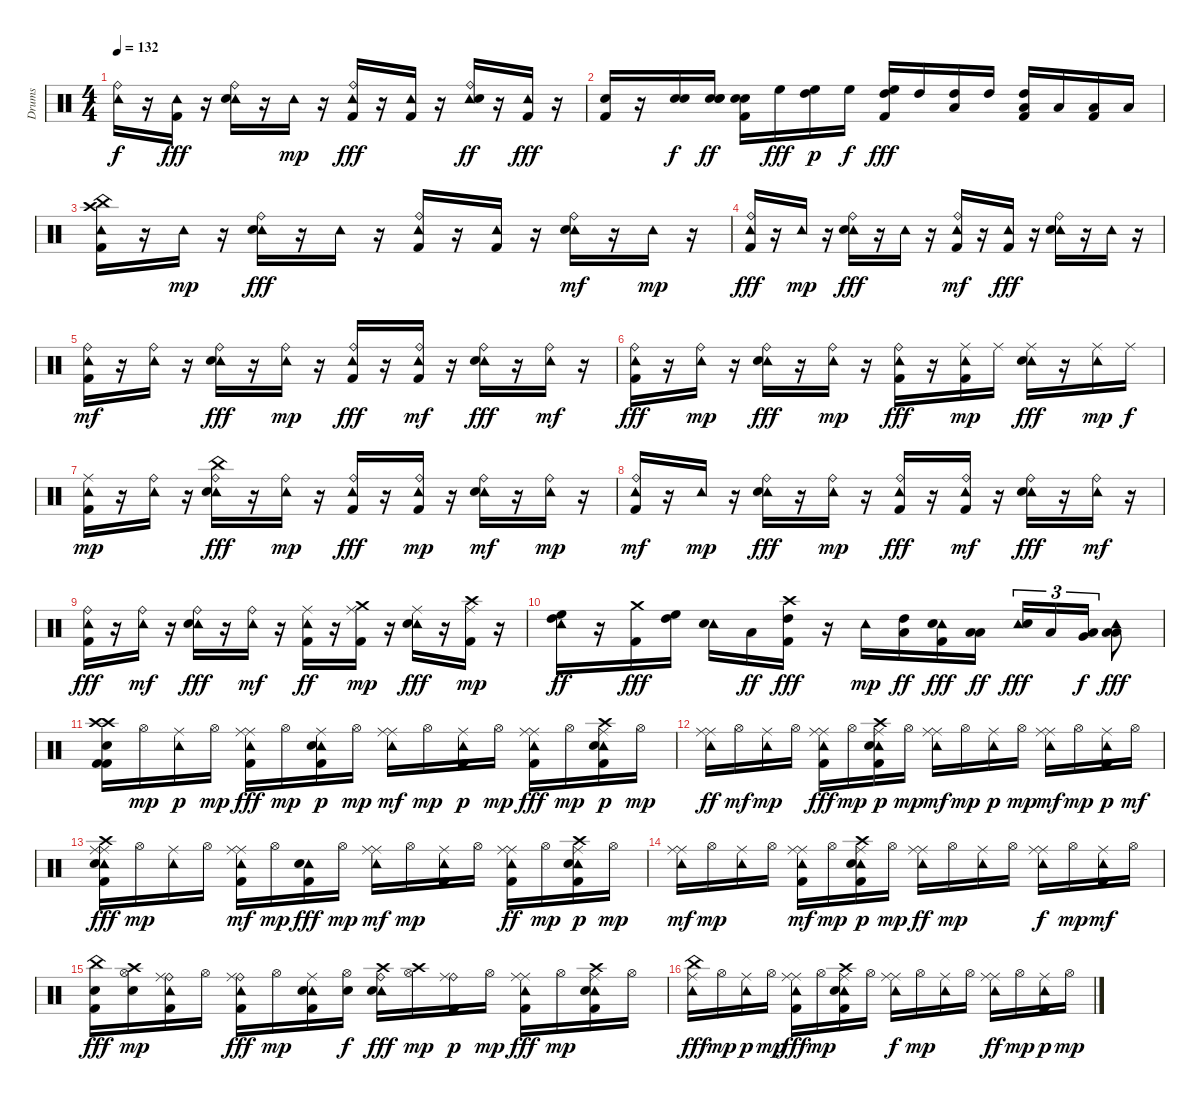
\track ("Drums" "Drums") {instrument percussion}
\staff {score}
\articulation defaults
\ts (4 4)
\tempo 132
\clef neutral
\ks c
("Tambourine (hit)" "Ride (bell)").16{dy f} r.16 ("Tambourine (hit)" "Kick (hit) 2").16{dy fff} r.16 ("Tambourine (hit)" "Snare (hit) 2" "Ride (bell)").16 r.16 "Tambourine (hit)".16{dy mp} r.16 ("Tambourine (hit)" "Kick (hit) 2" "Ride (bell)").16{dy fff} r.16 ("Tambourine (hit)" "Kick (hit) 2").16 r.16 ("Tambourine (hit)" "Snare (hit) 2" "Ride (bell)").16{dy ff} r.16 ("Tambourine (hit)" "Kick (hit) 2").16{dy fff} r.16 |
("Snare (hit) 2" "Kick (hit) 2").16 r.16 ("Snare (hit) 2" "Snare (hit) 2").16{dy f} ("Snare (hit) 2" "Snare (hit) 2" "Snare (hit) 2").16{dy ff} ("Snare (hit) 2" "Kick (hit) 2" "Snare (hit) 2").16 "High Floor Tom (hit)".16{dy fff} ("High Tom (hit)" "High Floor Tom (hit)").16{dy p} "High Floor Tom (hit)".16{dy f} ("High Tom (hit)" "Kick (hit) 2" "High Floor Tom (hit)").16{dy fff} "High Tom (hit)".16 ("High Tom (hit)" "Low Tom (hit)").16 "High Tom (hit)".16 ("High Tom (hit)" "Low Tom (hit)" "Kick (hit) 2").16 "Low Tom (hit)".16 ("Low Floor Tom (hit)" "Kick (hit) 2").16 "Low Floor Tom (hit)".16 |
("Tambourine (hit)" "Crash high (hit)" "Kick (hit) 2" "China (hit)").16 r.16 "Tambourine (hit)".16{dy mp} r.16 ("Tambourine (hit)" "Snare (hit) 2" "Ride (bell)").16{dy fff} r.16 "Tambourine (hit)".16 r.16 ("Tambourine (hit)" "Kick (hit) 2" "Ride (bell)").16 r.16 ("Tambourine (hit)" "Kick (hit) 2").16 r.16 ("Tambourine (hit)" "Snare (hit) 2" "Ride (bell)").16{dy mf} r.16 "Tambourine (hit)".16{dy mp} r.16 |
("Tambourine (hit)" "Kick (hit) 2" "Ride (bell)").16{dy fff} r.16 "Tambourine (hit)".16{dy mp} r.16 ("Tambourine (hit)" "Snare (hit) 2" "Ride (bell)").16{dy fff} r.16 "Tambourine (hit)".16 r.16 ("Tambourine (hit)" "Kick (hit) 2" "Ride (bell)").16{dy mf} r.16 ("Tambourine (hit)" "Kick (hit) 2").16{dy fff} r.16 ("Tambourine (hit)" "Snare (hit) 2" "Ride (bell)").16 r.16 "Tambourine (hit)".16 r.16 |
("Tambourine (hit)" "Kick (hit) 2" "Ride (bell)").16{dy mf} r.16 ("Tambourine (hit)" "Ride (bell)").16 r.16 ("Tambourine (hit)" "Snare (hit) 2" "Ride (bell)").16{dy fff} r.16 ("Tambourine (hit)" "Ride (bell)").16{dy mp} r.16 ("Tambourine (hit)" "Kick (hit) 2" "Ride (bell)").16{dy fff} r.16 ("Tambourine (hit)" "Kick (hit) 2" "Ride (bell)").16{dy mf} r.16 ("Tambourine (hit)" "Snare (hit) 2" "Ride (bell)").16{dy fff} r.16 ("Tambourine (hit)" "Ride (bell)").16{dy mf} r.16 |
("Tambourine (hit)" "Kick (hit) 2" "Ride (bell)").16{dy fff} r.16 ("Tambourine (hit)" "Ride (bell)").16{dy mp} r.16 ("Tambourine (hit)" "Snare (hit) 2" "Ride (bell)").16{dy fff} r.16 ("Tambourine (hit)" "Ride (bell)").16{dy mp} r.16 ("Tambourine (hit)" "Kick (hit) 2" "Ride (bell)").16{dy fff} r.16 ("Tambourine (hit)" "Kick (hit) 2" "Ride (middle)").16{dy mp} "Ride (middle)".16 ("Ride (middle)" "Tambourine (hit)" "Snare (hit) 2").16{dy fff} r.16 ("Tambourine (hit)" "Ride (middle)").16{dy mp} "Ride (middle)".16{dy f} |
("Tambourine (hit)" "Kick (hit) 2" "Ride (middle)").16{dy mp} r.16 ("Tambourine (hit)" "Ride (bell)").16 r.16 ("Tambourine (hit)" "Snare (hit) 2" "China (hit)" "Ride (bell)").16{dy fff} r.16 ("Tambourine (hit)" "Ride (bell)").16{dy mp} r.16 ("Tambourine (hit)" "Kick (hit) 2" "Ride (bell)").16{dy fff} r.16 ("Tambourine (hit)" "Kick (hit) 2" "Ride (bell)").16{dy mp} r.16 ("Tambourine (hit)" "Snare (hit) 2" "Ride (bell)").16{dy mf} r.16 ("Tambourine (hit)" "Ride (bell)").16{dy mp} r.16 |
("Tambourine (hit)" "Kick (hit) 2" "Ride (bell)").16{dy mf} r.16 "Tambourine (hit)".16{dy mp} r.16 ("Tambourine (hit)" "Snare (hit) 2" "Ride (bell)").16{dy fff} r.16 ("Tambourine (hit)" "Ride (bell)").16{dy mp} r.16 ("Tambourine (hit)" "Kick (hit) 2" "Ride (bell)").16{dy fff} r.16 ("Tambourine (hit)" "Kick (hit) 2" "Ride (bell)").16{dy mf} r.16 ("Tambourine (hit)" "Snare (hit) 2" "Ride (bell)").16{dy fff} r.16 ("Tambourine (hit)" "Ride (bell)").16{dy mf} r.16 |
("Tambourine (hit)" "Kick (hit) 2" "Ride (bell)").16{dy fff} r.16 ("Tambourine (hit)" "Ride (bell)").16{dy mf} r.16 ("Tambourine (hit)" "Snare (hit) 2" "Ride (bell)").16{dy fff} r.16 ("Tambourine (hit)" "Ride (bell)").16{dy mf} r.16 ("Tambourine (hit)" "Kick (hit) 2" "Ride (middle)").16{dy ff} r.16 ("Crash medium (hit)" "Kick (hit) 2" "Ride (middle)").16{dy mp} r.16 ("Tambourine (hit)" "Snare (hit) 2" "Ride (middle)").16{dy fff} r.16 ("Crash high (hit)" "Kick (hit) 2" "Ride (middle)").16{dy mp} r.16 |
("Tambourine (hit)" "High Floor Tom (hit)" "High Tom (hit)").16{dy ff} r.16 ("Crash medium (hit)" "Kick (hit) 2").16{dy fff} ("High Tom (hit)" "High Floor Tom (hit)").16 ("Tambourine (hit)" "Snare (hit) 2").16 "Low Tom (hit)".16{dy ff} ("High Tom (hit)" "Crash high (hit)" "Kick (hit) 2").16{dy fff} r.16 "Tambourine (hit)".16{dy mp} ("Low Tom (hit)" "High Tom (hit)").16{dy ff} ("Tambourine (hit)" "Snare (hit) 2" "Kick (hit) 2").16{dy fff} ("Low Floor Tom (hit)" "Low Tom (hit)").16{dy ff} ("Tambourine (hit)" "Snare (hit) 2").16{tu (3 2) dy fff} "Low Tom (hit)".16{tu (3 2)} ("Very Low Tom (hit)" "Low Tom (hit)").16{tu (3 2) dy f} ("Low Floor Tom (hit)" "Tambourine (hit)" "Low Floor Tom (hit)").8{dy fff} |
("Kick (hit) 2" "Crash high (hit)" "Snare (hit) 2" "Kick (hit) 2" "Crash high (hit)").16 "Hi-Hat (open)".16{dy mp} ("Tambourine (hit)" "Ride (middle)").16{dy p} "Hi-Hat (open)".16{dy mp} ("Tambourine (hit)" "Ride (middle)" "Kick (hit) 2" "Ride (middle)").16{dy fff} "Hi-Hat (open)".16{dy mp} ("Tambourine (hit)" "Snare (hit) 2" "Kick (hit) 2" "Ride (middle)").16{dy p} "Hi-Hat (open)".16{dy mp} ("Tambourine (hit)" "Ride (middle)" "Ride (middle)").16{dy mf} "Hi-Hat (open)".16{dy mp} ("Tambourine (hit)" "Kick (hit) 2" "Ride (middle)").16{dy p} "Hi-Hat (open)".16{dy mp} ("Tambourine (hit)" "Ride (middle)" "Kick (hit) 2" "Ride (middle)").16{dy fff} "Hi-Hat (open)".16{dy mp} ("Tambourine (hit)" "Crash high (hit)" "Snare (hit) 2" "Kick (hit) 2" "Ride (middle)").16{dy p} "Hi-Hat (open)".16{dy mp} |
("Tambourine (hit)" "Ride (middle)" "Ride (middle)").16{dy ff} "Hi-Hat (open)".16{dy mf} ("Tambourine (hit)" "Ride (middle)").16{dy mp} "Hi-Hat (open)".16 ("Tambourine (hit)" "Ride (middle)" "Kick (hit) 2" "Ride (middle)").16{dy fff} "Hi-Hat (open)".16{dy mp} ("Tambourine (hit)" "Crash high (hit)" "Snare (hit) 2" "Kick (hit) 2" "Ride (middle)").16{dy p} "Hi-Hat (open)".16{dy mp} ("Tambourine (hit)" "Ride (middle)" "Ride (middle)").16{dy mf} "Hi-Hat (open)".16{dy mp} ("Tambourine (hit)" "Ride (middle)").16{dy p} "Hi-Hat (open)".16{dy mp} ("Tambourine (hit)" "Ride (middle)" "Ride (middle)").16{dy mf} "Hi-Hat (open)".16{dy mp} ("Tambourine (hit)" "Kick (hit) 2" "Ride (middle)").16{dy p} "Hi-Hat (open)".16{dy mf} |
("Tambourine (hit)" "Ride (middle)" "Crash high (hit)" "Snare (hit) 2" "Kick (hit) 2" "Ride (middle)").16{dy fff} "Hi-Hat (open)".16{dy mp} ("Tambourine (hit)" "Ride (middle)").16 "Hi-Hat (open)".16 ("Tambourine (hit)" "Ride (middle)" "Kick (hit) 2" "Ride (middle)").16{dy mf} "Hi-Hat (open)".16{dy mp} ("Tambourine (hit)" "Snare (hit) 2" "Kick (hit) 2").16{dy fff} "Hi-Hat (open)".16{dy mp} ("Tambourine (hit)" "Ride (middle)" "Ride (middle)").16{dy mf} "Hi-Hat (open)".16{dy mp} ("Tambourine (hit)" "Kick (hit) 2" "Ride (middle)").16 "Hi-Hat (open)".16 ("Tambourine (hit)" "Ride (middle)" "Kick (hit) 2" "Ride (middle)").16{dy ff} "Hi-Hat (open)".16{dy mp} ("Tambourine (hit)" "Crash high (hit)" "Snare (hit) 2" "Kick (hit) 2" "Ride (middle)").16{dy p} "Hi-Hat (open)".16{dy mp} |
("Tambourine (hit)" "Ride (middle)" "Ride (middle)").16{dy mf} "Hi-Hat (open)".16{dy mp} ("Tambourine (hit)" "Ride (middle)").16 "Hi-Hat (open)".16 ("Tambourine (hit)" "Ride (middle)" "Kick (hit) 2" "Ride (middle)").16{dy mf} "Hi-Hat (open)".16{dy mp} ("Tambourine (hit)" "Crash high (hit)" "Snare (hit) 2" "Kick (hit) 2" "Ride (middle)").16{dy p} "Hi-Hat (open)".16{dy mp} ("Tambourine (hit)" "Ride (middle)" "Ride (middle)").16{dy ff} "Hi-Hat (open)".16{dy mp} ("Tambourine (hit)" "Ride (middle)").16 "Hi-Hat (open)".16 ("Tambourine (hit)" "Ride (middle)" "Ride (middle)").16{dy f} "Hi-Hat (open)".16{dy mp} ("Tambourine (hit)" "Kick (hit) 2" "Ride (middle)").16{dy mf} "Hi-Hat (open)".16 |
("China (hit)" "Snare (hit) 2" "Kick (hit) 2").16{dy fff} ("Snare (hit) 2" "Crash high (hit)" "Hi-Hat (open)").16{dy mp} ("Tambourine (hit)" "Ride (bell)" "Kick (hit) 2" "Ride (middle)").16 "Hi-Hat (open)".16 ("Tambourine (hit)" "Ride (bell)" "Kick (hit) 2" "Ride (middle)").16{dy fff} "Hi-Hat (open)".16{dy mp} ("Tambourine (hit)" "Snare (hit) 2" "Kick (hit) 2" "Ride (middle)").16 ("Snare (hit) 2" "Hi-Hat (open)").16{dy f} ("Tambourine (hit)" "Ride (bell)" "Snare (hit) 2" "Crash high (hit)").16{dy fff} ("Crash high (hit)" "Hi-Hat (open)").16{dy mp} ("Ride (bell)" "Kick (hit) 2" "Ride (middle)").16{dy p} "Hi-Hat (open)".16{dy mp} ("Tambourine (hit)" "Ride (middle)" "Kick (hit) 2" "Ride (middle)").16{dy fff} "Hi-Hat (open)".16{dy mp} ("Tambourine (hit)" "Crash high (hit)" "Snare (hit) 2" "Kick (hit) 2" "Ride (middle)").16 "Hi-Hat (open)".16 |
("Tambourine (hit)" "Ride (middle)" "China (hit)").16{dy fff} "Hi-Hat (open)".16{dy mp} ("Tambourine (hit)" "Ride (middle)").16{dy p} "Hi-Hat (open)".16{dy mp} ("Tambourine (hit)" "Ride (middle)" "Kick (hit) 2" "Ride (middle)").16{dy fff} "Hi-Hat (open)".16{dy mp} ("Tambourine (hit)" "Crash high (hit)" "Snare (hit) 2" "Kick (hit) 2" "Ride (middle)").16 "Hi-Hat (open)".16 ("Tambourine (hit)" "Ride (middle)" "Ride (middle)").16{dy f} "Hi-Hat (open)".16{dy mp} ("Tambourine (hit)" "Ride (middle)").16 "Hi-Hat (open)".16 ("Tambourine (hit)" "Ride (middle)" "Ride (middle)").16{dy ff} "Hi-Hat (open)".16{dy mp} ("Tambourine (hit)" "Kick (hit) 2" "Ride (middle)").16{dy p} "Hi-Hat (open)".16{dy mp}
